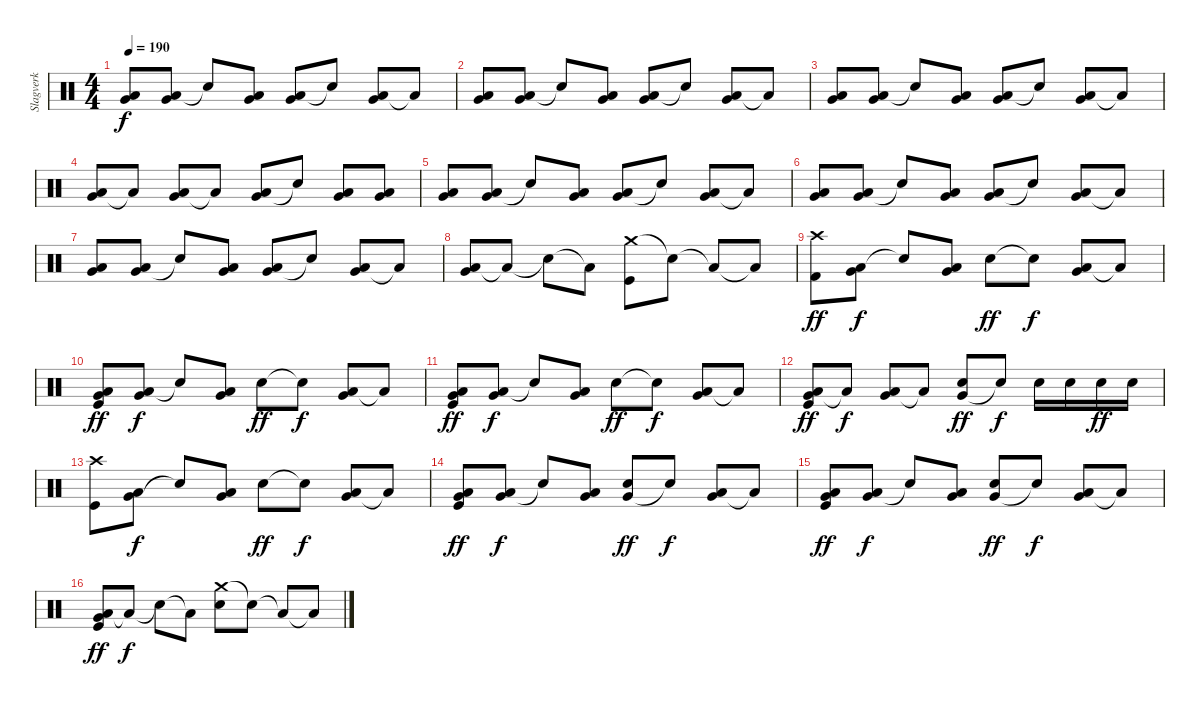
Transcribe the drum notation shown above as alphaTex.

\track ("Slagverk" "Slagverk") {instrument percussion}
\staff {score}
\articulation defaults
\ts (4 4)
\tempo 190
\clef neutral
\ks c
("Low Tom (hit)" "Very Low Tom (hit)").8{bu 60 dy f} ("Low Tom (hit)" "Very Low Tom (hit)").8{bu 60} "Snare (hit)"{t}.8 ("Low Tom (hit)" "Very Low Tom (hit)").8{bu 60} ("Low Tom (hit)" "Very Low Tom (hit)").8{bu 60} "Snare (hit)"{t}.8 ("Low Tom (hit)" "Very Low Tom (hit)").8{bu 60} "Low Floor Tom (hit)"{t}.8 |
("Low Tom (hit)" "Very Low Tom (hit)").8{bu 60} ("Low Tom (hit)" "Very Low Tom (hit)").8{bu 60} "Snare (hit)"{t}.8 ("Low Tom (hit)" "Very Low Tom (hit)").8{bu 60} ("Low Tom (hit)" "Very Low Tom (hit)").8{bu 60} "Snare (hit)"{t}.8 ("Low Tom (hit)" "Very Low Tom (hit)").8{bu 60} "Low Floor Tom (hit)"{t}.8 |
("Low Tom (hit)" "Very Low Tom (hit)").8{bu 60} ("Low Tom (hit)" "Very Low Tom (hit)").8{bu 60} "Snare (hit)"{t}.8 ("Low Tom (hit)" "Very Low Tom (hit)").8{bu 60} ("Low Tom (hit)" "Very Low Tom (hit)").8{bu 60} "Snare (hit)"{t}.8 ("Low Tom (hit)" "Very Low Tom (hit)").8{bu 60} "Low Floor Tom (hit)"{t}.8 |
("Very Low Tom (hit)" "Low Floor Tom (hit)").8{bu 60} "Low Floor Tom (hit)"{t}.8 ("Very Low Tom (hit)" "Low Floor Tom (hit)").8{bu 120} "Low Floor Tom (hit)"{t}.8 ("Very Low Tom (hit)" "Low Floor Tom (hit)").8{bu 60} "Snare (hit)"{t}.8 ("Very Low Tom (hit)" "Low Floor Tom (hit)").8{bu 60} ("Very Low Tom (hit)" "Low Floor Tom (hit)").8{bu 60} |
("Very Low Tom (hit)" "Low Floor Tom (hit)").8{bu 60} ("Very Low Tom (hit)" "Low Floor Tom (hit)").8{bu 60} "Snare (hit)"{t}.8 ("Very Low Tom (hit)" "Low Floor Tom (hit)").8{bu 60} ("Very Low Tom (hit)" "Low Floor Tom (hit)").8{bu 60} "Snare (hit)"{t}.8 ("Very Low Tom (hit)" "Low Floor Tom (hit)").8{bu 60} "Low Floor Tom (hit)"{t}.8 |
("Very Low Tom (hit)" "Low Floor Tom (hit)").8{bu 60} ("Very Low Tom (hit)" "Low Floor Tom (hit)").8{bu 60} "Snare (hit)"{t}.8 ("Very Low Tom (hit)" "Low Floor Tom (hit)").8{bu 60} ("Very Low Tom (hit)" "Low Floor Tom (hit)").8{bu 60} "Snare (hit)"{t}.8 ("Very Low Tom (hit)" "Low Floor Tom (hit)").8{bu 60} "Low Floor Tom (hit)"{t}.8 |
("Very Low Tom (hit)" "Low Floor Tom (hit)").8{bu 60} ("Very Low Tom (hit)" "Low Floor Tom (hit)").8{bu 60} "Snare (hit)"{t}.8 ("Very Low Tom (hit)" "Low Floor Tom (hit)").8{bu 60} ("Very Low Tom (hit)" "Low Floor Tom (hit)").8{bu 60} "Snare (hit)"{t}.8 ("Very Low Tom (hit)" "Low Floor Tom (hit)").8{bu 60} "Low Floor Tom (hit)"{t}.8 |
("Low Floor Tom (hit)" "Very Low Tom (hit)").8{bu 120} "Low Floor Tom (hit)"{t}.8 "Snare (hit)"{t}.8 "Low Floor Tom (hit)"{t}.8 ("Crash medium (hit)" "Kick (hit)").8 "Snare (hit)"{t}.8 "Low Floor Tom (hit)"{t}.8 "Low Floor Tom (hit)"{t}.8 |
("Crash high (hit)" "Kick (hit) 2").8{dy ff} ("Low Tom (hit)" "Very Low Tom (hit)").8{bu 60 dy f} "Snare (hit)"{t}.8 ("Low Tom (hit)" "Very Low Tom (hit)").8{bu 60} "Snare (hit) 2".8{dy ff} "Snare (hit)"{t}.8{dy f} ("Low Tom (hit)" "Very Low Tom (hit)").8{bu 60} "Low Floor Tom (hit)"{t}.8 |
("Low Tom (hit)" "Very Low Tom (hit)" "Kick (hit)").8{bu 60 dy ff} ("Low Tom (hit)" "Very Low Tom (hit)").8{bu 60 dy f} "Snare (hit)"{t}.8 ("Low Tom (hit)" "Very Low Tom (hit)").8{bu 60} "Snare (hit) 2".8{dy ff} "Snare (hit)"{t}.8{dy f} ("Low Tom (hit)" "Very Low Tom (hit)").8{bu 60} "Low Floor Tom (hit)"{t}.8 |
("Low Tom (hit)" "Very Low Tom (hit)" "Kick (hit)").8{bu 60 dy ff} ("Low Tom (hit)" "Very Low Tom (hit)").8{bu 60 dy f} "Snare (hit)"{t}.8 ("Low Tom (hit)" "Very Low Tom (hit)").8{bu 60} "Snare (hit) 2".8{dy ff} "Snare (hit)"{t}.8{dy f} ("Low Tom (hit)" "Very Low Tom (hit)").8{bu 60} "Low Floor Tom (hit)"{t}.8 |
("Very Low Tom (hit)" "Low Floor Tom (hit)" "Kick (hit)").8{bu 60 dy ff} "Low Floor Tom (hit)"{t}.8{dy f} ("Very Low Tom (hit)" "Low Floor Tom (hit)").8{bu 120} "Low Floor Tom (hit)"{t}.8 ("Very Low Tom (hit)" "Snare (hit) 2").8{bu 60 dy ff} "Snare (hit)"{t}.8{dy f} "Snare (hit) 2".16 "Snare (hit) 2".16 "Snare (hit) 2".16{dy ff} "Snare (hit) 2".16 |
("Crash high (hit)" "Kick (hit)").8 ("Very Low Tom (hit)" "Low Floor Tom (hit)").8{bu 60 dy f} "Snare (hit)"{t}.8 ("Very Low Tom (hit)" "Low Floor Tom (hit)").8{bu 60} "Snare (hit) 2".8{dy ff} "Snare (hit)"{t}.8{dy f} ("Very Low Tom (hit)" "Low Floor Tom (hit)").8{bu 60} "Low Floor Tom (hit)"{t}.8 |
("Very Low Tom (hit)" "Low Floor Tom (hit)" "Kick (hit)").8{bu 60 dy ff} ("Very Low Tom (hit)" "Low Floor Tom (hit)").8{bu 60 dy f} "Snare (hit)"{t}.8 ("Very Low Tom (hit)" "Low Floor Tom (hit)").8{bu 60} ("Very Low Tom (hit)" "Snare (hit) 2").8{bu 60 dy ff} "Snare (hit)"{t}.8{dy f} ("Very Low Tom (hit)" "Low Floor Tom (hit)").8{bu 60} "Low Floor Tom (hit)"{t}.8 |
("Very Low Tom (hit)" "Low Floor Tom (hit)" "Kick (hit)").8{bu 60 dy ff} ("Very Low Tom (hit)" "Low Floor Tom (hit)").8{bu 60 dy f} "Snare (hit)"{t}.8 ("Very Low Tom (hit)" "Low Floor Tom (hit)").8{bu 60} ("Very Low Tom (hit)" "Snare (hit) 2").8{bu 60 dy ff} "Snare (hit)"{t}.8{dy f} ("Very Low Tom (hit)" "Low Floor Tom (hit)").8{bu 60} "Low Floor Tom (hit)"{t}.8 |
("Low Floor Tom (hit)" "Very Low Tom (hit)" "Kick (hit)").8{bu 120 dy ff} "Low Floor Tom (hit)"{t}.8{dy f} "Snare (hit)"{t}.8 "Low Floor Tom (hit)"{t}.8 ("Crash medium (hit)" "Snare (hit) 2").8 "Snare (hit)"{t}.8 "Low Floor Tom (hit)"{t}.8 "Low Floor Tom (hit)"{t}.8
